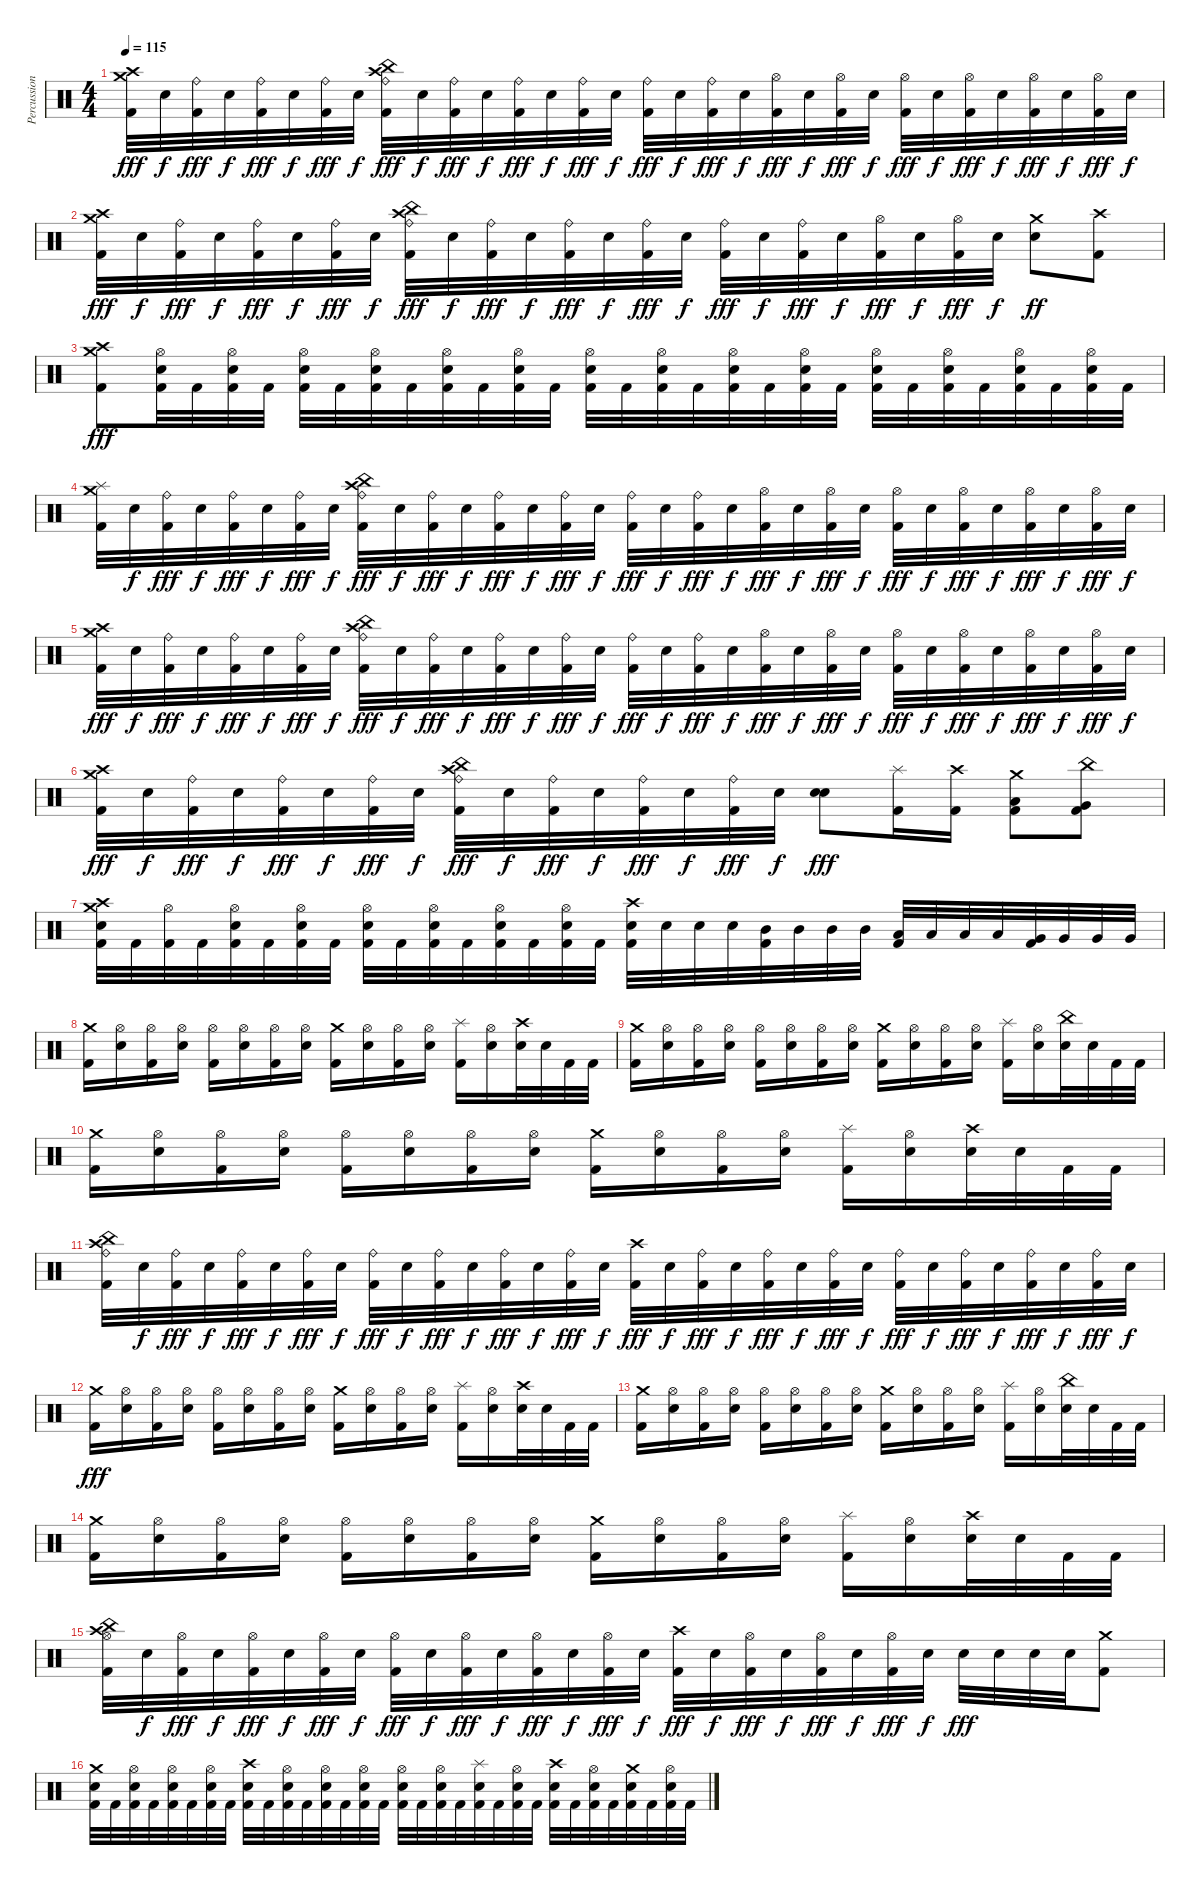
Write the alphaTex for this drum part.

\track ("Percussion" "Percussion") {instrument percussion}
\staff
\articulation defaults
\ts (4 4)
\tempo 115
\clef neutral
\ks c
("Crash medium (hit)" "Crash high (hit)" "Kick (hit) 2").32{dy fff} "Snare (hit) 2".32{dy f} ("Ride (bell)" "Kick (hit) 2").32{dy fff} "Snare (hit) 2".32{dy f} ("Ride (bell)" "Kick (hit) 2").32{dy fff} "Snare (hit) 2".32{dy f} ("Ride (bell)" "Kick (hit) 2").32{dy fff} "Snare (hit) 2".32{dy f} ("China (hit)" "Crash high (hit)" "Ride (bell)" "Kick (hit) 2").32{dy fff} "Snare (hit) 2".32{dy f} ("Ride (bell)" "Kick (hit) 2").32{dy fff} "Snare (hit) 2".32{dy f} ("Ride (bell)" "Kick (hit) 2").32{dy fff} "Snare (hit) 2".32{dy f} ("Ride (bell)" "Kick (hit) 2").32{dy fff} "Snare (hit) 2".32{dy f} ("Ride (bell)" "Kick (hit) 2").32{dy fff} "Snare (hit) 2".32{dy f} ("Ride (bell)" "Kick (hit) 2").32{dy fff} "Snare (hit) 2".32{dy f} ("Hi-Hat (open)" "Kick (hit) 2").32{dy fff} "Snare (hit) 2".32{dy f} ("Hi-Hat (open)" "Kick (hit) 2").32{dy fff} "Snare (hit) 2".32{dy f} ("Hi-Hat (open)" "Kick (hit) 2").32{dy fff} "Snare (hit) 2".32{dy f} ("Hi-Hat (open)" "Kick (hit) 2").32{dy fff} "Snare (hit) 2".32{dy f} ("Hi-Hat (open)" "Kick (hit) 2").32{dy fff} "Snare (hit) 2".32{dy f} ("Hi-Hat (open)" "Kick (hit) 2").32{dy fff} "Snare (hit) 2".32{dy f} |
("Crash medium (hit)" "Crash high (hit)" "Kick (hit) 2").32{dy fff} "Snare (hit) 2".32{dy f} ("Ride (bell)" "Kick (hit) 2").32{dy fff} "Snare (hit) 2".32{dy f} ("Ride (bell)" "Kick (hit) 2").32{dy fff} "Snare (hit) 2".32{dy f} ("Ride (bell)" "Kick (hit) 2").32{dy fff} "Snare (hit) 2".32{dy f} ("China (hit)" "Crash high (hit)" "Ride (bell)" "Kick (hit) 2").32{dy fff} "Snare (hit) 2".32{dy f} ("Ride (bell)" "Kick (hit) 2").32{dy fff} "Snare (hit) 2".32{dy f} ("Ride (bell)" "Kick (hit) 2").32{dy fff} "Snare (hit) 2".32{dy f} ("Ride (bell)" "Kick (hit) 2").32{dy fff} "Snare (hit) 2".32{dy f} ("Ride (bell)" "Kick (hit) 2").32{dy fff} "Snare (hit) 2".32{dy f} ("Ride (bell)" "Kick (hit) 2").32{dy fff} "Snare (hit) 2".32{dy f} ("Hi-Hat (open)" "Kick (hit) 2").32{dy fff} "Snare (hit) 2".32{dy f} ("Hi-Hat (open)" "Kick (hit) 2").32{dy fff} "Snare (hit) 2".32{dy f} ("Crash medium (hit)" "Snare (hit) 2").8{dy ff} ("Crash high (hit)" "Kick (hit) 2").8 |
("Crash high (hit)" "Crash medium (hit)" "Kick (hit) 2").8{dy fff} ("Hi-Hat (open)" "Snare (hit) 2" "Kick (hit) 2").32 "Kick (hit) 2".32 ("Hi-Hat (open)" "Snare (hit) 2" "Kick (hit) 2").32 "Kick (hit) 2".32 ("Hi-Hat (open)" "Snare (hit) 2" "Kick (hit) 2").32 "Kick (hit) 2".32 ("Hi-Hat (open)" "Snare (hit) 2" "Kick (hit) 2").32 "Kick (hit) 2".32 ("Hi-Hat (open)" "Snare (hit) 2" "Kick (hit) 2").32 "Kick (hit) 2".32 ("Hi-Hat (open)" "Snare (hit) 2" "Kick (hit) 2").32 "Kick (hit) 2".32 ("Hi-Hat (open)" "Snare (hit) 2" "Kick (hit) 2").32 "Kick (hit) 2".32 ("Hi-Hat (open)" "Snare (hit) 2" "Kick (hit) 2").32 "Kick (hit) 2".32 ("Hi-Hat (open)" "Snare (hit) 2" "Kick (hit) 2").32 "Kick (hit) 2".32 ("Hi-Hat (open)" "Snare (hit) 2" "Kick (hit) 2").32 "Kick (hit) 2".32 ("Hi-Hat (open)" "Snare (hit) 2" "Kick (hit) 2").32 "Kick (hit) 2".32 ("Hi-Hat (open)" "Snare (hit) 2" "Kick (hit) 2").32 "Kick (hit) 2".32 ("Hi-Hat (open)" "Snare (hit) 2" "Kick (hit) 2").32 "Kick (hit) 2".32 ("Hi-Hat (open)" "Snare (hit) 2" "Kick (hit) 2").32 "Kick (hit) 2".32 |
("Splash (hit)" "Crash medium (hit)" "Kick (hit) 2").32 "Snare (hit) 2".32{dy f} ("Ride (bell)" "Kick (hit) 2").32{dy fff} "Snare (hit) 2".32{dy f} ("Ride (bell)" "Kick (hit) 2").32{dy fff} "Snare (hit) 2".32{dy f} ("Ride (bell)" "Kick (hit) 2").32{dy fff} "Snare (hit) 2".32{dy f} ("China (hit)" "Crash high (hit)" "Ride (bell)" "Kick (hit) 2").32{dy fff} "Snare (hit) 2".32{dy f} ("Ride (bell)" "Kick (hit) 2").32{dy fff} "Snare (hit) 2".32{dy f} ("Ride (bell)" "Kick (hit) 2").32{dy fff} "Snare (hit) 2".32{dy f} ("Ride (bell)" "Kick (hit) 2").32{dy fff} "Snare (hit) 2".32{dy f} ("Ride (bell)" "Kick (hit) 2").32{dy fff} "Snare (hit) 2".32{dy f} ("Ride (bell)" "Kick (hit) 2").32{dy fff} "Snare (hit) 2".32{dy f} ("Hi-Hat (open)" "Kick (hit) 2").32{dy fff} "Snare (hit) 2".32{dy f} ("Hi-Hat (open)" "Kick (hit) 2").32{dy fff} "Snare (hit) 2".32{dy f} ("Hi-Hat (open)" "Kick (hit) 2").32{dy fff} "Snare (hit) 2".32{dy f} ("Hi-Hat (open)" "Kick (hit) 2").32{dy fff} "Snare (hit) 2".32{dy f} ("Hi-Hat (open)" "Kick (hit) 2").32{dy fff} "Snare (hit) 2".32{dy f} ("Hi-Hat (open)" "Kick (hit) 2").32{dy fff} "Snare (hit) 2".32{dy f} |
("Crash medium (hit)" "Crash high (hit)" "Kick (hit) 2").32{dy fff} "Snare (hit) 2".32{dy f} ("Ride (bell)" "Kick (hit) 2").32{dy fff} "Snare (hit) 2".32{dy f} ("Ride (bell)" "Kick (hit) 2").32{dy fff} "Snare (hit) 2".32{dy f} ("Ride (bell)" "Kick (hit) 2").32{dy fff} "Snare (hit) 2".32{dy f} ("China (hit)" "Crash high (hit)" "Ride (bell)" "Kick (hit) 2").32{dy fff} "Snare (hit) 2".32{dy f} ("Ride (bell)" "Kick (hit) 2").32{dy fff} "Snare (hit) 2".32{dy f} ("Ride (bell)" "Kick (hit) 2").32{dy fff} "Snare (hit) 2".32{dy f} ("Ride (bell)" "Kick (hit) 2").32{dy fff} "Snare (hit) 2".32{dy f} ("Ride (bell)" "Kick (hit) 2").32{dy fff} "Snare (hit) 2".32{dy f} ("Ride (bell)" "Kick (hit) 2").32{dy fff} "Snare (hit) 2".32{dy f} ("Hi-Hat (open)" "Kick (hit) 2").32{dy fff} "Snare (hit) 2".32{dy f} ("Hi-Hat (open)" "Kick (hit) 2").32{dy fff} "Snare (hit) 2".32{dy f} ("Hi-Hat (open)" "Kick (hit) 2").32{dy fff} "Snare (hit) 2".32{dy f} ("Hi-Hat (open)" "Kick (hit) 2").32{dy fff} "Snare (hit) 2".32{dy f} ("Hi-Hat (open)" "Kick (hit) 2").32{dy fff} "Snare (hit) 2".32{dy f} ("Hi-Hat (open)" "Kick (hit) 2").32{dy fff} "Snare (hit) 2".32{dy f} |
("Crash medium (hit)" "Crash high (hit)" "Kick (hit) 2").32{dy fff} "Snare (hit) 2".32{dy f} ("Ride (bell)" "Kick (hit) 2").32{dy fff} "Snare (hit) 2".32{dy f} ("Ride (bell)" "Kick (hit) 2").32{dy fff} "Snare (hit) 2".32{dy f} ("Ride (bell)" "Kick (hit) 2").32{dy fff} "Snare (hit) 2".32{dy f} ("China (hit)" "Crash high (hit)" "Ride (bell)" "Kick (hit) 2").32{dy fff} "Snare (hit) 2".32{dy f} ("Ride (bell)" "Kick (hit) 2").32{dy fff} "Snare (hit) 2".32{dy f} ("Ride (bell)" "Kick (hit) 2").32{dy fff} "Snare (hit) 2".32{dy f} ("Ride (bell)" "Kick (hit) 2").32{dy fff} "Snare (hit) 2".32{dy f} ("Snare (hit) 2" "Snare (hit) 2").8{dy fff} ("Splash (hit)" "Kick (hit) 2").16 ("Crash high (hit)" "Kick (hit) 2").16 ("Crash medium (hit)" "Low Tom (hit)" "Kick (hit) 2").8 ("China (hit)" "Very Low Tom (hit)" "Kick (hit) 2").8 |
("Crash high (hit)" "Crash medium (hit)" "Snare (hit) 2" "Kick (hit) 2").32 "Kick (hit) 2".32 ("Hi-Hat (open)" "Kick (hit) 2").32 "Kick (hit) 2".32 ("Hi-Hat (open)" "Snare (hit) 2" "Kick (hit) 2").32 "Kick (hit) 2".32 ("Hi-Hat (open)" "Snare (hit) 2" "Kick (hit) 2").32 "Kick (hit) 2".32 ("Hi-Hat (open)" "Snare (hit) 2" "Kick (hit) 2").32 "Kick (hit) 2".32 ("Hi-Hat (open)" "Snare (hit) 2" "Kick (hit) 2").32 "Kick (hit) 2".32 ("Hi-Hat (open)" "Snare (hit) 2" "Kick (hit) 2").32 "Kick (hit) 2".32 ("Hi-Hat (open)" "Snare (hit) 2" "Kick (hit) 2").32 "Kick (hit) 2".32 ("Crash high (hit)" "Snare (hit) 2" "Kick (hit) 2").32 "Snare (hit) 2".32 "Snare (hit) 2".32 "Snare (hit) 2".32 ("Mid Tom (hit)" "Kick (hit) 2").32 "Mid Tom (hit)".32 "Mid Tom (hit)".32 "Mid Tom (hit)".32 ("Low Tom (hit)" "Kick (hit) 2").32 "Low Tom (hit)".32 "Low Tom (hit)".32 "Low Tom (hit)".32 ("Very Low Tom (hit)" "Kick (hit) 2").32 "Very Low Tom (hit)".32 "Very Low Tom (hit)".32 "Very Low Tom (hit)".32 |
("Crash medium (hit)" "Kick (hit) 2").16 ("Hi-Hat (open)" "Snare (hit) 2").16 ("Hi-Hat (open)" "Kick (hit) 2").16 ("Hi-Hat (open)" "Snare (hit) 2").16 ("Hi-Hat (open)" "Kick (hit) 2").16 ("Hi-Hat (open)" "Snare (hit) 2").16 ("Hi-Hat (open)" "Kick (hit) 2").16 ("Hi-Hat (open)" "Snare (hit) 2").16 ("Crash medium (hit)" "Kick (hit) 2").16 ("Hi-Hat (open)" "Snare (hit) 2").16 ("Hi-Hat (open)" "Kick (hit) 2").16 ("Hi-Hat (open)" "Snare (hit) 2").16 ("Splash (hit)" "Kick (hit) 2").16 ("Hi-Hat (open)" "Snare (hit) 2").16 ("Crash high (hit)" "Snare (hit) 2").32 "Snare (hit) 2".32 "Kick (hit) 2".32 "Kick (hit) 2".32 |
("Crash medium (hit)" "Kick (hit) 2").16 ("Hi-Hat (open)" "Snare (hit) 2").16 ("Hi-Hat (open)" "Kick (hit) 2").16 ("Hi-Hat (open)" "Snare (hit) 2").16 ("Hi-Hat (open)" "Kick (hit) 2").16 ("Hi-Hat (open)" "Snare (hit) 2").16 ("Hi-Hat (open)" "Kick (hit) 2").16 ("Hi-Hat (open)" "Snare (hit) 2").16 ("Crash medium (hit)" "Kick (hit) 2").16 ("Hi-Hat (open)" "Snare (hit) 2").16 ("Hi-Hat (open)" "Kick (hit) 2").16 ("Hi-Hat (open)" "Snare (hit) 2").16 ("Splash (hit)" "Kick (hit) 2").16 ("Hi-Hat (open)" "Snare (hit) 2").16 ("China (hit)" "Snare (hit) 2").32 "Snare (hit) 2".32 "Kick (hit) 2".32 "Kick (hit) 2".32 |
("Crash medium (hit)" "Kick (hit) 2").16 ("Hi-Hat (open)" "Snare (hit) 2").16 ("Hi-Hat (open)" "Kick (hit) 2").16 ("Hi-Hat (open)" "Snare (hit) 2").16 ("Hi-Hat (open)" "Kick (hit) 2").16 ("Hi-Hat (open)" "Snare (hit) 2").16 ("Hi-Hat (open)" "Kick (hit) 2").16 ("Hi-Hat (open)" "Snare (hit) 2").16 ("Crash medium (hit)" "Kick (hit) 2").16 ("Hi-Hat (open)" "Snare (hit) 2").16 ("Hi-Hat (open)" "Kick (hit) 2").16 ("Hi-Hat (open)" "Snare (hit) 2").16 ("Splash (hit)" "Kick (hit) 2").16 ("Hi-Hat (open)" "Snare (hit) 2").16 ("Crash high (hit)" "Snare (hit) 2").32 "Snare (hit) 2".32 "Kick (hit) 2".32 "Kick (hit) 2".32 |
("China (hit)" "Crash high (hit)" "Ride (bell)" "Kick (hit) 2").32 "Snare (hit) 2".32{dy f} ("Ride (bell)" "Kick (hit) 2").32{dy fff} "Snare (hit) 2".32{dy f} ("Ride (bell)" "Kick (hit) 2").32{dy fff} "Snare (hit) 2".32{dy f} ("Ride (bell)" "Kick (hit) 2").32{dy fff} "Snare (hit) 2".32{dy f} ("Ride (bell)" "Kick (hit) 2").32{dy fff} "Snare (hit) 2".32{dy f} ("Ride (bell)" "Kick (hit) 2").32{dy fff} "Snare (hit) 2".32{dy f} ("Ride (bell)" "Kick (hit) 2").32{dy fff} "Snare (hit) 2".32{dy f} ("Ride (bell)" "Kick (hit) 2").32{dy fff} "Snare (hit) 2".32{dy f} ("Crash high (hit)" "Kick (hit) 2").32{dy fff} "Snare (hit) 2".32{dy f} ("Ride (bell)" "Kick (hit) 2").32{dy fff} "Snare (hit) 2".32{dy f} ("Ride (bell)" "Kick (hit) 2").32{dy fff} "Snare (hit) 2".32{dy f} ("Ride (bell)" "Kick (hit) 2").32{dy fff} "Snare (hit) 2".32{dy f} ("Ride (bell)" "Kick (hit) 2").32{dy fff} "Snare (hit) 2".32{dy f} ("Ride (bell)" "Kick (hit) 2").32{dy fff} "Snare (hit) 2".32{dy f} ("Ride (bell)" "Kick (hit) 2").32{dy fff} "Snare (hit) 2".32{dy f} ("Ride (bell)" "Kick (hit) 2").32{dy fff} "Snare (hit) 2".32{dy f} |
("Crash medium (hit)" "Kick (hit) 2").16{dy fff} ("Hi-Hat (open)" "Snare (hit) 2").16 ("Hi-Hat (open)" "Kick (hit) 2").16 ("Hi-Hat (open)" "Snare (hit) 2").16 ("Hi-Hat (open)" "Kick (hit) 2").16 ("Hi-Hat (open)" "Snare (hit) 2").16 ("Hi-Hat (open)" "Kick (hit) 2").16 ("Hi-Hat (open)" "Snare (hit) 2").16 ("Crash medium (hit)" "Kick (hit) 2").16 ("Hi-Hat (open)" "Snare (hit) 2").16 ("Hi-Hat (open)" "Kick (hit) 2").16 ("Hi-Hat (open)" "Snare (hit) 2").16 ("Splash (hit)" "Kick (hit) 2").16 ("Hi-Hat (open)" "Snare (hit) 2").16 ("Crash high (hit)" "Snare (hit) 2").32 "Snare (hit) 2".32 "Kick (hit) 2".32 "Kick (hit) 2".32 |
("Crash medium (hit)" "Kick (hit) 2").16 ("Hi-Hat (open)" "Snare (hit) 2").16 ("Hi-Hat (open)" "Kick (hit) 2").16 ("Hi-Hat (open)" "Snare (hit) 2").16 ("Hi-Hat (open)" "Kick (hit) 2").16 ("Hi-Hat (open)" "Snare (hit) 2").16 ("Hi-Hat (open)" "Kick (hit) 2").16 ("Hi-Hat (open)" "Snare (hit) 2").16 ("Crash medium (hit)" "Kick (hit) 2").16 ("Hi-Hat (open)" "Snare (hit) 2").16 ("Hi-Hat (open)" "Kick (hit) 2").16 ("Hi-Hat (open)" "Snare (hit) 2").16 ("Splash (hit)" "Kick (hit) 2").16 ("Hi-Hat (open)" "Snare (hit) 2").16 ("China (hit)" "Snare (hit) 2").32 "Snare (hit) 2".32 "Kick (hit) 2".32 "Kick (hit) 2".32 |
("Crash medium (hit)" "Kick (hit) 2").16 ("Hi-Hat (open)" "Snare (hit) 2").16 ("Hi-Hat (open)" "Kick (hit) 2").16 ("Hi-Hat (open)" "Snare (hit) 2").16 ("Hi-Hat (open)" "Kick (hit) 2").16 ("Hi-Hat (open)" "Snare (hit) 2").16 ("Hi-Hat (open)" "Kick (hit) 2").16 ("Hi-Hat (open)" "Snare (hit) 2").16 ("Crash medium (hit)" "Kick (hit) 2").16 ("Hi-Hat (open)" "Snare (hit) 2").16 ("Hi-Hat (open)" "Kick (hit) 2").16 ("Hi-Hat (open)" "Snare (hit) 2").16 ("Splash (hit)" "Kick (hit) 2").16 ("Hi-Hat (open)" "Snare (hit) 2").16 ("Crash high (hit)" "Snare (hit) 2").32 "Snare (hit) 2".32 "Kick (hit) 2".32 "Kick (hit) 2".32 |
("China (hit)" "Crash high (hit)" "Hi-Hat (open)" "Kick (hit) 2").32 "Snare (hit) 2".32{dy f} ("Hi-Hat (open)" "Kick (hit) 2").32{dy fff} "Snare (hit) 2".32{dy f} ("Hi-Hat (open)" "Kick (hit) 2").32{dy fff} "Snare (hit) 2".32{dy f} ("Hi-Hat (open)" "Kick (hit) 2").32{dy fff} "Snare (hit) 2".32{dy f} ("Hi-Hat (open)" "Kick (hit) 2").32{dy fff} "Snare (hit) 2".32{dy f} ("Hi-Hat (open)" "Kick (hit) 2").32{dy fff} "Snare (hit) 2".32{dy f} ("Hi-Hat (open)" "Kick (hit) 2").32{dy fff} "Snare (hit) 2".32{dy f} ("Hi-Hat (open)" "Kick (hit) 2").32{dy fff} "Snare (hit) 2".32{dy f} ("Crash high (hit)" "Kick (hit) 2").32{dy fff} "Snare (hit) 2".32{dy f} ("Hi-Hat (open)" "Kick (hit) 2").32{dy fff} "Snare (hit) 2".32{dy f} ("Hi-Hat (open)" "Kick (hit) 2").32{dy fff} "Snare (hit) 2".32{dy f} ("Hi-Hat (open)" "Kick (hit) 2").32{dy fff} "Snare (hit) 2".32{dy f} "Snare (hit) 2".32{dy fff} "Snare (hit) 2".32 "Snare (hit) 2".32 "Snare (hit) 2".32 ("Crash medium (hit)" "Kick (hit) 2").8 |
("Crash medium (hit)" "Snare (hit) 2" "Kick (hit) 2").32 "Kick (hit) 2".32 ("Hi-Hat (open)" "Snare (hit) 2" "Kick (hit) 2").32 "Kick (hit) 2".32 ("Hi-Hat (open)" "Snare (hit) 2" "Kick (hit) 2").32 "Kick (hit) 2".32 ("Hi-Hat (open)" "Snare (hit) 2" "Kick (hit) 2").32 "Kick (hit) 2".32 ("Crash high (hit)" "Snare (hit) 2" "Kick (hit) 2").32 "Kick (hit) 2".32 ("Hi-Hat (open)" "Snare (hit) 2" "Kick (hit) 2").32 "Kick (hit) 2".32 ("Hi-Hat (open)" "Snare (hit) 2" "Kick (hit) 2").32 "Kick (hit) 2".32 ("Hi-Hat (open)" "Snare (hit) 2" "Kick (hit) 2").32 "Kick (hit) 2".32 ("Hi-Hat (open)" "Snare (hit) 2" "Kick (hit) 2").32 "Kick (hit) 2".32 ("Hi-Hat (open)" "Snare (hit) 2" "Kick (hit) 2").32 "Kick (hit) 2".32 ("Splash (hit)" "Snare (hit) 2" "Kick (hit) 2").32 "Kick (hit) 2".32 ("Hi-Hat (open)" "Snare (hit) 2" "Kick (hit) 2").32 "Kick (hit) 2".32 ("Crash high (hit)" "Snare (hit) 2" "Kick (hit) 2").32 "Kick (hit) 2".32 ("Hi-Hat (open)" "Snare (hit) 2" "Kick (hit) 2").32 "Kick (hit) 2".32 ("Crash medium (hit)" "Snare (hit) 2" "Kick (hit) 2").32 "Kick (hit) 2".32 ("Hi-Hat (open)" "Snare (hit) 2" "Kick (hit) 2").32 "Kick (hit) 2".32
